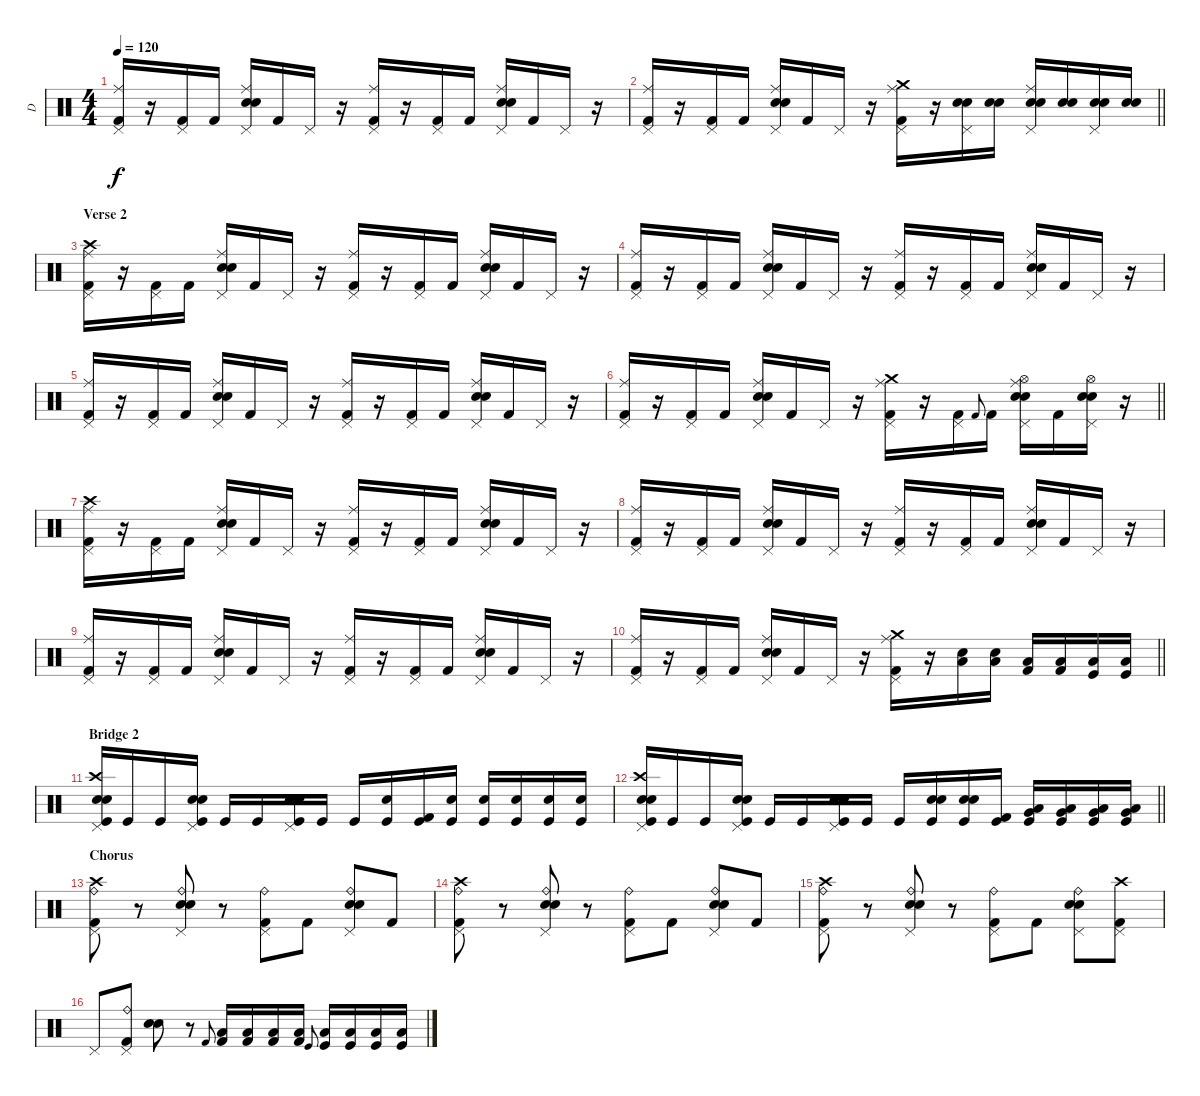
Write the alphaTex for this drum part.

\track ("D" "D") {instrument percussion}
\staff {score}
\articulation defaults
\ts (4 4)
\tempo 120
\clef neutral
\ks c
("Kick (hit) 2" "Pedal Hi-Hat (hit)" "Ride (middle)").16{dy f} r.16 ("Kick (hit) 2" "Pedal Hi-Hat (hit)").16 "Kick (hit) 2".16 ("Electric Snare (hit)" "Electric Snare (hit)" "Pedal Hi-Hat (hit)" "Ride (middle)").16 "Kick (hit) 2".16 "Pedal Hi-Hat (hit)".16 r.16 ("Kick (hit) 2" "Pedal Hi-Hat (hit)" "Ride (middle)").16 r.16 ("Kick (hit) 2" "Pedal Hi-Hat (hit)").16 "Kick (hit) 2".16 ("Electric Snare (hit)" "Electric Snare (hit)" "Pedal Hi-Hat (hit)" "Ride (middle)").16 "Kick (hit) 2".16 "Pedal Hi-Hat (hit)".16 r.16 |
\barLineRight lightlight
("Kick (hit) 2" "Pedal Hi-Hat (hit)" "Ride (middle)").16 r.16 ("Kick (hit) 2" "Pedal Hi-Hat (hit)").16 "Kick (hit) 2".16 ("Electric Snare (hit)" "Electric Snare (hit)" "Pedal Hi-Hat (hit)" "Ride (middle)").16 "Kick (hit) 2".16 "Pedal Hi-Hat (hit)".16 r.16 ("Crash medium (hit)" "Kick (hit) 2" "Pedal Hi-Hat (hit)" "Ride (middle)").16 r.16 ("Electric Snare (hit)" "Electric Snare (hit)" "Pedal Hi-Hat (hit)").16 ("Electric Snare (hit)" "Electric Snare (hit)").16 ("Electric Snare (hit)" "Electric Snare (hit)" "Pedal Hi-Hat (hit)" "Ride (middle)").16 ("Electric Snare (hit)" "Electric Snare (hit)").16 ("Electric Snare (hit)" "Electric Snare (hit)" "Pedal Hi-Hat (hit)").16 ("Electric Snare (hit)" "Electric Snare (hit)").16 |
\section ("" "Verse 2")
("Crash high (hit)" "Kick (hit) 2" "Pedal Hi-Hat (hit)" "Ride (middle)").16 r.16 ("Kick (hit) 2" "Pedal Hi-Hat (hit)").16 "Kick (hit) 2".16 ("Electric Snare (hit)" "Electric Snare (hit)" "Pedal Hi-Hat (hit)" "Ride (middle)").16 "Kick (hit) 2".16 "Pedal Hi-Hat (hit)".16 r.16 ("Kick (hit) 2" "Pedal Hi-Hat (hit)" "Ride (middle)").16 r.16 ("Kick (hit) 2" "Pedal Hi-Hat (hit)").16 "Kick (hit) 2".16 ("Electric Snare (hit)" "Electric Snare (hit)" "Pedal Hi-Hat (hit)" "Ride (middle)").16 "Kick (hit) 2".16 "Pedal Hi-Hat (hit)".16 r.16 |
("Kick (hit) 2" "Pedal Hi-Hat (hit)" "Ride (middle)").16 r.16 ("Kick (hit) 2" "Pedal Hi-Hat (hit)").16 "Kick (hit) 2".16 ("Electric Snare (hit)" "Electric Snare (hit)" "Pedal Hi-Hat (hit)" "Ride (middle)").16 "Kick (hit) 2".16 "Pedal Hi-Hat (hit)".16 r.16 ("Kick (hit) 2" "Pedal Hi-Hat (hit)" "Ride (middle)").16 r.16 ("Kick (hit) 2" "Pedal Hi-Hat (hit)").16 "Kick (hit) 2".16 ("Electric Snare (hit)" "Electric Snare (hit)" "Pedal Hi-Hat (hit)" "Ride (middle)").16 "Kick (hit) 2".16 "Pedal Hi-Hat (hit)".16 r.16 |
("Kick (hit) 2" "Pedal Hi-Hat (hit)" "Ride (middle)").16 r.16 ("Kick (hit) 2" "Pedal Hi-Hat (hit)").16 "Kick (hit) 2".16 ("Electric Snare (hit)" "Electric Snare (hit)" "Pedal Hi-Hat (hit)" "Ride (middle)").16 "Kick (hit) 2".16 "Pedal Hi-Hat (hit)".16 r.16 ("Kick (hit) 2" "Pedal Hi-Hat (hit)" "Ride (middle)").16 r.16 ("Kick (hit) 2" "Pedal Hi-Hat (hit)").16 "Kick (hit) 2".16 ("Electric Snare (hit)" "Electric Snare (hit)" "Pedal Hi-Hat (hit)" "Ride (middle)").16 "Kick (hit) 2".16 "Pedal Hi-Hat (hit)".16 r.16 |
\barLineRight lightlight
("Kick (hit) 2" "Pedal Hi-Hat (hit)" "Ride (middle)").16 r.16 ("Kick (hit) 2" "Pedal Hi-Hat (hit)").16 "Kick (hit) 2".16 ("Electric Snare (hit)" "Electric Snare (hit)" "Pedal Hi-Hat (hit)" "Ride (middle)").16 "Kick (hit) 2".16 "Pedal Hi-Hat (hit)".16 r.16 ("Crash medium (hit)" "Kick (hit) 2" "Pedal Hi-Hat (hit)" "Ride (middle)").16 r.16 ("Kick (hit) 2" "Pedal Hi-Hat (hit)").16 "Kick (hit) 2".8{gr onbeat} "Kick (hit) 2".16 ("Hi-Hat (open)" "Electric Snare (hit)" "Electric Snare (hit)" "Pedal Hi-Hat (hit)" "Ride (middle)").16 "Kick (hit) 2".16 ("Hi-Hat (open)" "Electric Snare (hit)" "Electric Snare (hit)" "Pedal Hi-Hat (hit)").16 r.16 |
("Crash high (hit)" "Kick (hit) 2" "Pedal Hi-Hat (hit)" "Ride (middle)").16 r.16 ("Kick (hit) 2" "Pedal Hi-Hat (hit)").16 "Kick (hit) 2".16 ("Electric Snare (hit)" "Electric Snare (hit)" "Pedal Hi-Hat (hit)" "Ride (middle)").16 "Kick (hit) 2".16 "Pedal Hi-Hat (hit)".16 r.16 ("Kick (hit) 2" "Pedal Hi-Hat (hit)" "Ride (middle)").16 r.16 ("Kick (hit) 2" "Pedal Hi-Hat (hit)").16 "Kick (hit) 2".16 ("Electric Snare (hit)" "Electric Snare (hit)" "Pedal Hi-Hat (hit)" "Ride (middle)").16 "Kick (hit) 2".16 "Pedal Hi-Hat (hit)".16 r.16 |
("Kick (hit) 2" "Pedal Hi-Hat (hit)" "Ride (middle)").16 r.16 ("Kick (hit) 2" "Pedal Hi-Hat (hit)").16 "Kick (hit) 2".16 ("Electric Snare (hit)" "Electric Snare (hit)" "Pedal Hi-Hat (hit)" "Ride (middle)").16 "Kick (hit) 2".16 "Pedal Hi-Hat (hit)".16 r.16 ("Kick (hit) 2" "Pedal Hi-Hat (hit)" "Ride (middle)").16 r.16 ("Kick (hit) 2" "Pedal Hi-Hat (hit)").16 "Kick (hit) 2".16 ("Electric Snare (hit)" "Electric Snare (hit)" "Pedal Hi-Hat (hit)" "Ride (middle)").16 "Kick (hit) 2".16 "Pedal Hi-Hat (hit)".16 r.16 |
("Kick (hit) 2" "Pedal Hi-Hat (hit)" "Ride (middle)").16 r.16 ("Kick (hit) 2" "Pedal Hi-Hat (hit)").16 "Kick (hit) 2".16 ("Electric Snare (hit)" "Electric Snare (hit)" "Pedal Hi-Hat (hit)" "Ride (middle)").16 "Kick (hit) 2".16 "Pedal Hi-Hat (hit)".16 r.16 ("Kick (hit) 2" "Pedal Hi-Hat (hit)" "Ride (middle)").16 r.16 ("Kick (hit) 2" "Pedal Hi-Hat (hit)").16 "Kick (hit) 2".16 ("Electric Snare (hit)" "Electric Snare (hit)" "Pedal Hi-Hat (hit)" "Ride (middle)").16 "Kick (hit) 2".16 "Pedal Hi-Hat (hit)".16 r.16 |
\barLineRight lightlight
("Kick (hit) 2" "Pedal Hi-Hat (hit)" "Ride (middle)").16 r.16 ("Kick (hit) 2" "Pedal Hi-Hat (hit)").16 "Kick (hit) 2".16 ("Electric Snare (hit)" "Electric Snare (hit)" "Pedal Hi-Hat (hit)" "Ride (middle)").16 "Kick (hit) 2".16 "Pedal Hi-Hat (hit)".16 r.16 ("Crash medium (hit)" "Kick (hit) 2" "Pedal Hi-Hat (hit)" "Ride (middle)").16 r.16 ("Electric Snare (hit)" "Low Floor Tom (hit)").16 ("Electric Snare (hit)" "Low Floor Tom (hit)").16 ("Kick (hit) 2" "Low Floor Tom (hit)").16 ("Kick (hit) 2" "Low Floor Tom (hit)").16 ("Kick (hit)" "Low Floor Tom (hit)").16 ("Kick (hit)" "Low Floor Tom (hit)").16 |
\section ("" "Bridge 2")
("Crash high (hit)" "Electric Snare (hit)" "Electric Snare (hit)" "Kick (hit)" "Pedal Hi-Hat (hit)").16 "Kick (hit)".16 "Kick (hit)".16 ("Electric Snare (hit)" "Electric Snare (hit)" "Kick (hit)" "Pedal Hi-Hat (hit)").16 "Kick (hit)".16 "Kick (hit)".16 ("Electric Snare (hit)" "Electric Snare (hit)" "Kick (hit)" "Pedal Hi-Hat (hit)").16 "Kick (hit)".16 "Kick (hit)".16 ("Electric Snare (hit)" "Kick (hit)").16 ("Kick (hit) 2" "Kick (hit)").16 ("Electric Snare (hit)" "Kick (hit)").16 ("Electric Snare (hit)" "Kick (hit)").16 ("Electric Snare (hit)" "Kick (hit)").16 ("Electric Snare (hit)" "Kick (hit)").16 ("Electric Snare (hit)" "Kick (hit)").16 |
\barLineRight lightlight
("Crash high (hit)" "Electric Snare (hit)" "Electric Snare (hit)" "Kick (hit)" "Pedal Hi-Hat (hit)").16 "Kick (hit)".16 "Kick (hit)".16 ("Electric Snare (hit)" "Electric Snare (hit)" "Kick (hit)" "Pedal Hi-Hat (hit)").16 "Kick (hit)".16 "Kick (hit)".16 ("Electric Snare (hit)" "Electric Snare (hit)" "Kick (hit)" "Pedal Hi-Hat (hit)").16 "Kick (hit)".16 "Kick (hit)".16 ("Electric Snare (hit)" "Electric Snare (hit)" "Kick (hit)").16 ("Electric Snare (hit)" "Electric Snare (hit)" "Kick (hit)").16 ("Kick (hit) 2" "Kick (hit)").16 ("Very Low Tom (hit)" "Low Floor Tom (hit)" "Kick (hit)").16 ("Very Low Tom (hit)" "Low Floor Tom (hit)" "Kick (hit)").16 ("Very Low Tom (hit)" "Low Floor Tom (hit)" "Kick (hit)").16 ("Very Low Tom (hit)" "Low Floor Tom (hit)" "Kick (hit)").16 |
\section ("" "Chorus")
("Crash high (hit)" "Kick (hit) 2" "Ride (bell)" "Pedal Hi-Hat (hit)").8 r.8 ("Electric Snare (hit)" "Electric Snare (hit)" "Ride (bell)" "Pedal Hi-Hat (hit)").8 r.8 ("Kick (hit) 2" "Ride (bell)" "Pedal Hi-Hat (hit)").8 "Kick (hit) 2".8 ("Electric Snare (hit)" "Electric Snare (hit)" "Ride (bell)" "Pedal Hi-Hat (hit)").8 "Kick (hit) 2".8 |
("Crash high (hit)" "Kick (hit) 2" "Ride (bell)" "Pedal Hi-Hat (hit)").8 r.8 ("Electric Snare (hit)" "Electric Snare (hit)" "Ride (bell)" "Pedal Hi-Hat (hit)").8 r.8 ("Kick (hit) 2" "Ride (bell)" "Pedal Hi-Hat (hit)").8 "Kick (hit) 2".8 ("Electric Snare (hit)" "Electric Snare (hit)" "Ride (bell)" "Pedal Hi-Hat (hit)").8 "Kick (hit) 2".8 |
("Crash high (hit)" "Kick (hit) 2" "Ride (bell)" "Pedal Hi-Hat (hit)").8 r.8 ("Electric Snare (hit)" "Electric Snare (hit)" "Ride (bell)" "Pedal Hi-Hat (hit)").8 r.8 ("Kick (hit) 2" "Ride (bell)" "Pedal Hi-Hat (hit)").8 "Kick (hit) 2".8 ("Electric Snare (hit)" "Electric Snare (hit)" "Ride (bell)" "Pedal Hi-Hat (hit)").8 ("Crash high (hit)" "Kick (hit) 2" "Pedal Hi-Hat (hit)").8 |
"Pedal Hi-Hat (hit)".8 ("Kick (hit) 2" "Ride (bell)" "Pedal Hi-Hat (hit)").8 ("Electric Snare (hit)" "Electric Snare (hit)").8 r.8 "Kick (hit) 2".8{gr onbeat} ("Kick (hit) 2" "Low Floor Tom (hit)").16 ("Kick (hit) 2" "Low Floor Tom (hit)").16 ("Kick (hit) 2" "Low Floor Tom (hit)").16 ("Kick (hit) 2" "Low Floor Tom (hit)").16 "Kick (hit)".8{gr onbeat} ("Kick (hit)" "Low Floor Tom (hit)").16 ("Kick (hit)" "Low Floor Tom (hit)").16 ("Kick (hit)" "Low Floor Tom (hit)").16 ("Kick (hit)" "Low Floor Tom (hit)").16
